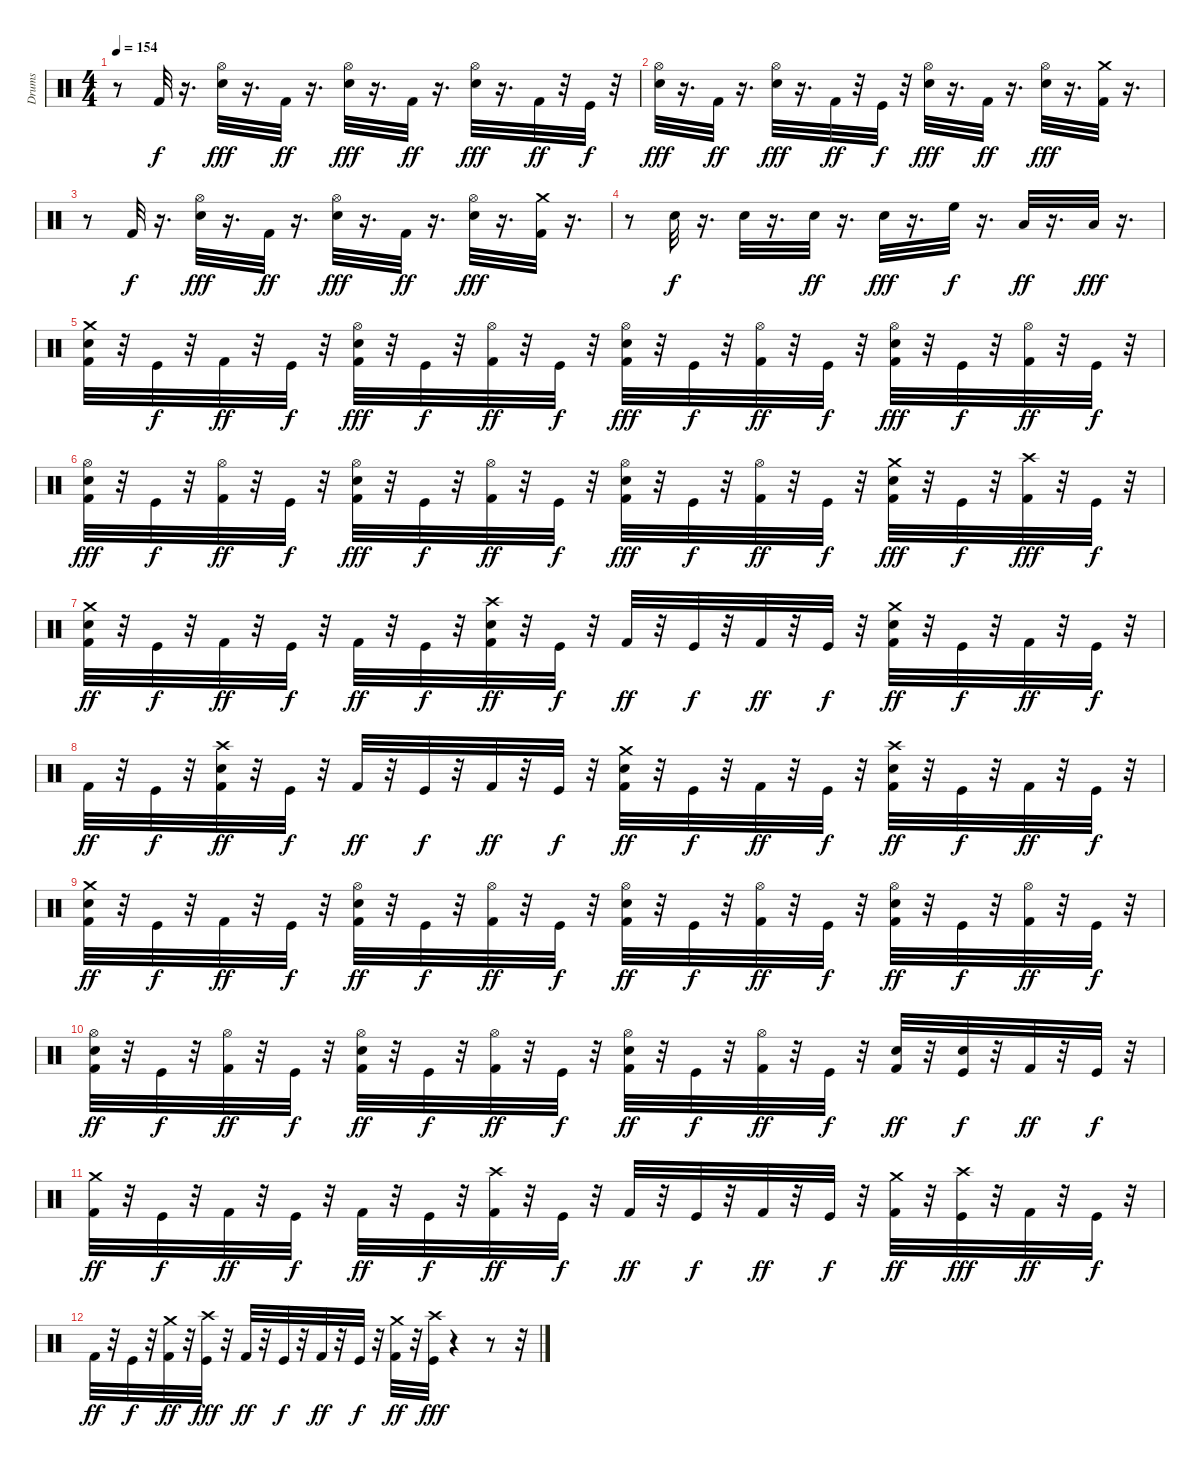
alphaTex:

\track ("Drums" "Drums") {instrument percussion}
\staff {score}
\articulation defaults
\ts (4 4)
\tempo 154
\clef neutral
\ks c
r.8{dy fff} "Kick (hit) 2".32{dy f} r.16{d} ("Snare (hit) 2" "Hi-Hat (open)").32{dy fff} r.16{d} "Kick (hit) 2".32{dy ff} r.16{d} ("Snare (hit) 2" "Hi-Hat (open)").32{dy fff} r.16{d} "Kick (hit) 2".32{dy ff} r.16{d} ("Snare (hit) 2" "Hi-Hat (open)").32{dy fff} r.16{d} "Kick (hit) 2".32{dy ff} r.32 "Kick (hit)".32{dy f} r.32 |
("Snare (hit) 2" "Hi-Hat (open)").32{dy fff} r.16{d} "Kick (hit) 2".32{dy ff} r.16{d} ("Snare (hit) 2" "Hi-Hat (open)").32{dy fff} r.16{d} "Kick (hit) 2".32{dy ff} r.32 "Kick (hit)".32{dy f} r.32 ("Snare (hit) 2" "Hi-Hat (open)").32{dy fff} r.16{d} "Kick (hit) 2".32{dy ff} r.16{d} ("Snare (hit) 2" "Hi-Hat (open)").32{dy fff} r.16{d} ("Kick (hit) 2" "Crash medium (hit)").32 r.16{d} |
r.8 "Kick (hit) 2".32{dy f} r.16{d} ("Snare (hit) 2" "Hi-Hat (open)").32{dy fff} r.16{d} "Kick (hit) 2".32{dy ff} r.16{d} ("Snare (hit) 2" "Hi-Hat (open)").32{dy fff} r.16{d} "Kick (hit) 2".32{dy ff} r.16{d} ("Snare (hit) 2" "Hi-Hat (open)").32{dy fff} r.16{d} ("Kick (hit) 2" "Crash medium (hit)").32 r.16{d} |
r.8 "Snare (hit) 2".32{dy f} r.16{d} "Snare (hit) 2".32 r.16{d} "Snare (hit) 2".32{dy ff} r.16{d} "Snare (hit) 2".32{dy fff} r.16{d} "High Floor Tom (hit)".32{dy f} r.16{d} "Low Tom (hit)".32{dy ff} r.16{d} "Low Floor Tom (hit)".32{dy fff} r.16{d} |
("Kick (hit) 2" "Snare (hit) 2" "Crash medium (hit)").32 r.32 "Kick (hit)".32{dy f} r.32 "Kick (hit) 2".32{dy ff} r.32 "Kick (hit)".32{dy f} r.32 ("Kick (hit) 2" "Snare (hit) 2" "Hi-Hat (open)").32{dy fff} r.32 "Kick (hit)".32{dy f} r.32 ("Kick (hit) 2" "Hi-Hat (open)").32{dy ff} r.32 "Kick (hit)".32{dy f} r.32 ("Kick (hit) 2" "Snare (hit) 2" "Hi-Hat (open)").32{dy fff} r.32 "Kick (hit)".32{dy f} r.32 ("Kick (hit) 2" "Hi-Hat (open)").32{dy ff} r.32 "Kick (hit)".32{dy f} r.32 ("Kick (hit) 2" "Snare (hit) 2" "Hi-Hat (open)").32{dy fff} r.32 "Kick (hit)".32{dy f} r.32 ("Kick (hit) 2" "Hi-Hat (open)").32{dy ff} r.32 "Kick (hit)".32{dy f} r.32 |
("Kick (hit) 2" "Snare (hit) 2" "Hi-Hat (open)").32{dy fff} r.32 "Kick (hit)".32{dy f} r.32 ("Kick (hit) 2" "Hi-Hat (open)").32{dy ff} r.32 "Kick (hit)".32{dy f} r.32 ("Kick (hit) 2" "Snare (hit) 2" "Hi-Hat (open)").32{dy fff} r.32 "Kick (hit)".32{dy f} r.32 ("Kick (hit) 2" "Hi-Hat (open)").32{dy ff} r.32 "Kick (hit)".32{dy f} r.32 ("Kick (hit) 2" "Snare (hit) 2" "Hi-Hat (open)").32{dy fff} r.32 "Kick (hit)".32{dy f} r.32 ("Kick (hit) 2" "Hi-Hat (open)").32{dy ff} r.32 "Kick (hit)".32{dy f} r.32 ("Kick (hit) 2" "Snare (hit) 2" "Crash medium (hit)").32{dy fff} r.32 "Kick (hit)".32{dy f} r.32 ("Kick (hit) 2" "Crash high (hit)").32{dy fff} r.32 "Kick (hit)".32{dy f} r.32 |
("Crash medium (hit)" "Snare (hit) 2" "Kick (hit) 2").32{dy ff} r.32 "Kick (hit)".32{dy f} r.32 "Kick (hit) 2".32{dy ff} r.32 "Kick (hit)".32{dy f} r.32 "Kick (hit) 2".32{dy ff} r.32 "Kick (hit)".32{dy f} r.32 ("Crash high (hit)" "Snare (hit) 2" "Kick (hit) 2").32{dy ff} r.32 "Kick (hit)".32{dy f} r.32 "Kick (hit) 2".32{dy ff} r.32 "Kick (hit)".32{dy f} r.32 "Kick (hit) 2".32{dy ff} r.32 "Kick (hit)".32{dy f} r.32 ("Crash medium (hit)" "Snare (hit) 2" "Kick (hit) 2").32{dy ff} r.32 "Kick (hit)".32{dy f} r.32 "Kick (hit) 2".32{dy ff} r.32 "Kick (hit)".32{dy f} r.32 |
"Kick (hit) 2".32{dy ff} r.32 "Kick (hit)".32{dy f} r.32 ("Crash high (hit)" "Snare (hit) 2" "Kick (hit) 2").32{dy ff} r.32 "Kick (hit)".32{dy f} r.32 "Kick (hit) 2".32{dy ff} r.32 "Kick (hit)".32{dy f} r.32 "Kick (hit) 2".32{dy ff} r.32 "Kick (hit)".32{dy f} r.32 ("Crash medium (hit)" "Snare (hit) 2" "Kick (hit) 2").32{dy ff} r.32 "Kick (hit)".32{dy f} r.32 "Kick (hit) 2".32{dy ff} r.32 "Kick (hit)".32{dy f} r.32 ("Crash high (hit)" "Snare (hit) 2" "Kick (hit) 2").32{dy ff} r.32 "Kick (hit)".32{dy f} r.32 "Kick (hit) 2".32{dy ff} r.32 "Kick (hit)".32{dy f} r.32 |
("Snare (hit) 2" "Crash medium (hit)" "Kick (hit) 2").32{dy ff} r.32 "Kick (hit)".32{dy f} r.32 "Kick (hit) 2".32{dy ff} r.32 "Kick (hit)".32{dy f} r.32 ("Snare (hit) 2" "Hi-Hat (open)" "Kick (hit) 2").32{dy ff} r.32 "Kick (hit)".32{dy f} r.32 ("Hi-Hat (open)" "Kick (hit) 2").32{dy ff} r.32 "Kick (hit)".32{dy f} r.32 ("Snare (hit) 2" "Hi-Hat (open)" "Kick (hit) 2").32{dy ff} r.32 "Kick (hit)".32{dy f} r.32 ("Hi-Hat (open)" "Kick (hit) 2").32{dy ff} r.32 "Kick (hit)".32{dy f} r.32 ("Snare (hit) 2" "Hi-Hat (open)" "Kick (hit) 2").32{dy ff} r.32 "Kick (hit)".32{dy f} r.32 ("Hi-Hat (open)" "Kick (hit) 2").32{dy ff} r.32 "Kick (hit)".32{dy f} r.32 |
("Snare (hit) 2" "Hi-Hat (open)" "Kick (hit) 2").32{dy ff} r.32 "Kick (hit)".32{dy f} r.32 ("Hi-Hat (open)" "Kick (hit) 2").32{dy ff} r.32 "Kick (hit)".32{dy f} r.32 ("Snare (hit) 2" "Hi-Hat (open)" "Kick (hit) 2").32{dy ff} r.32 "Kick (hit)".32{dy f} r.32 ("Hi-Hat (open)" "Kick (hit) 2").32{dy ff} r.32 "Kick (hit)".32{dy f} r.32 ("Snare (hit) 2" "Hi-Hat (open)" "Kick (hit) 2").32{dy ff} r.32 "Kick (hit)".32{dy f} r.32 ("Hi-Hat (open)" "Kick (hit) 2").32{dy ff} r.32 "Kick (hit)".32{dy f} r.32 ("Snare (hit) 2" "Kick (hit) 2").32{dy ff} r.32 ("Snare (hit) 2" "Kick (hit)").32{dy f} r.32 "Kick (hit) 2".32{dy ff} r.32 "Kick (hit)".32{dy f} r.32 |
("Crash medium (hit)" "Kick (hit) 2").32{dy ff} r.32 "Kick (hit)".32{dy f} r.32 "Kick (hit) 2".32{dy ff} r.32 "Kick (hit)".32{dy f} r.32 "Kick (hit) 2".32{dy ff} r.32 "Kick (hit)".32{dy f} r.32 ("Crash high (hit)" "Kick (hit) 2").32{dy ff} r.32 "Kick (hit)".32{dy f} r.32 "Kick (hit) 2".32{dy ff} r.32 "Kick (hit)".32{dy f} r.32 "Kick (hit) 2".32{dy ff} r.32 "Kick (hit)".32{dy f} r.32 ("Crash medium (hit)" "Kick (hit) 2").32{dy ff} r.32 ("Crash high (hit)" "Kick (hit)").32{dy fff} r.32 "Kick (hit) 2".32{dy ff} r.32 "Kick (hit)".32{dy f} r.32 |
"Kick (hit) 2".32{dy ff} r.32 "Kick (hit)".32{dy f} r.32 ("Crash medium (hit)" "Kick (hit) 2").32{dy ff} r.32 ("Crash high (hit)" "Kick (hit)").32{dy fff} r.32 "Kick (hit) 2".32{dy ff} r.32 "Kick (hit)".32{dy f} r.32 "Kick (hit) 2".32{dy ff} r.32 "Kick (hit)".32{dy f} r.32 ("Crash medium (hit)" "Kick (hit) 2").32{dy ff} r.32 ("Crash high (hit)" "Kick (hit)").32{dy fff} r.4 r.8 r.32
